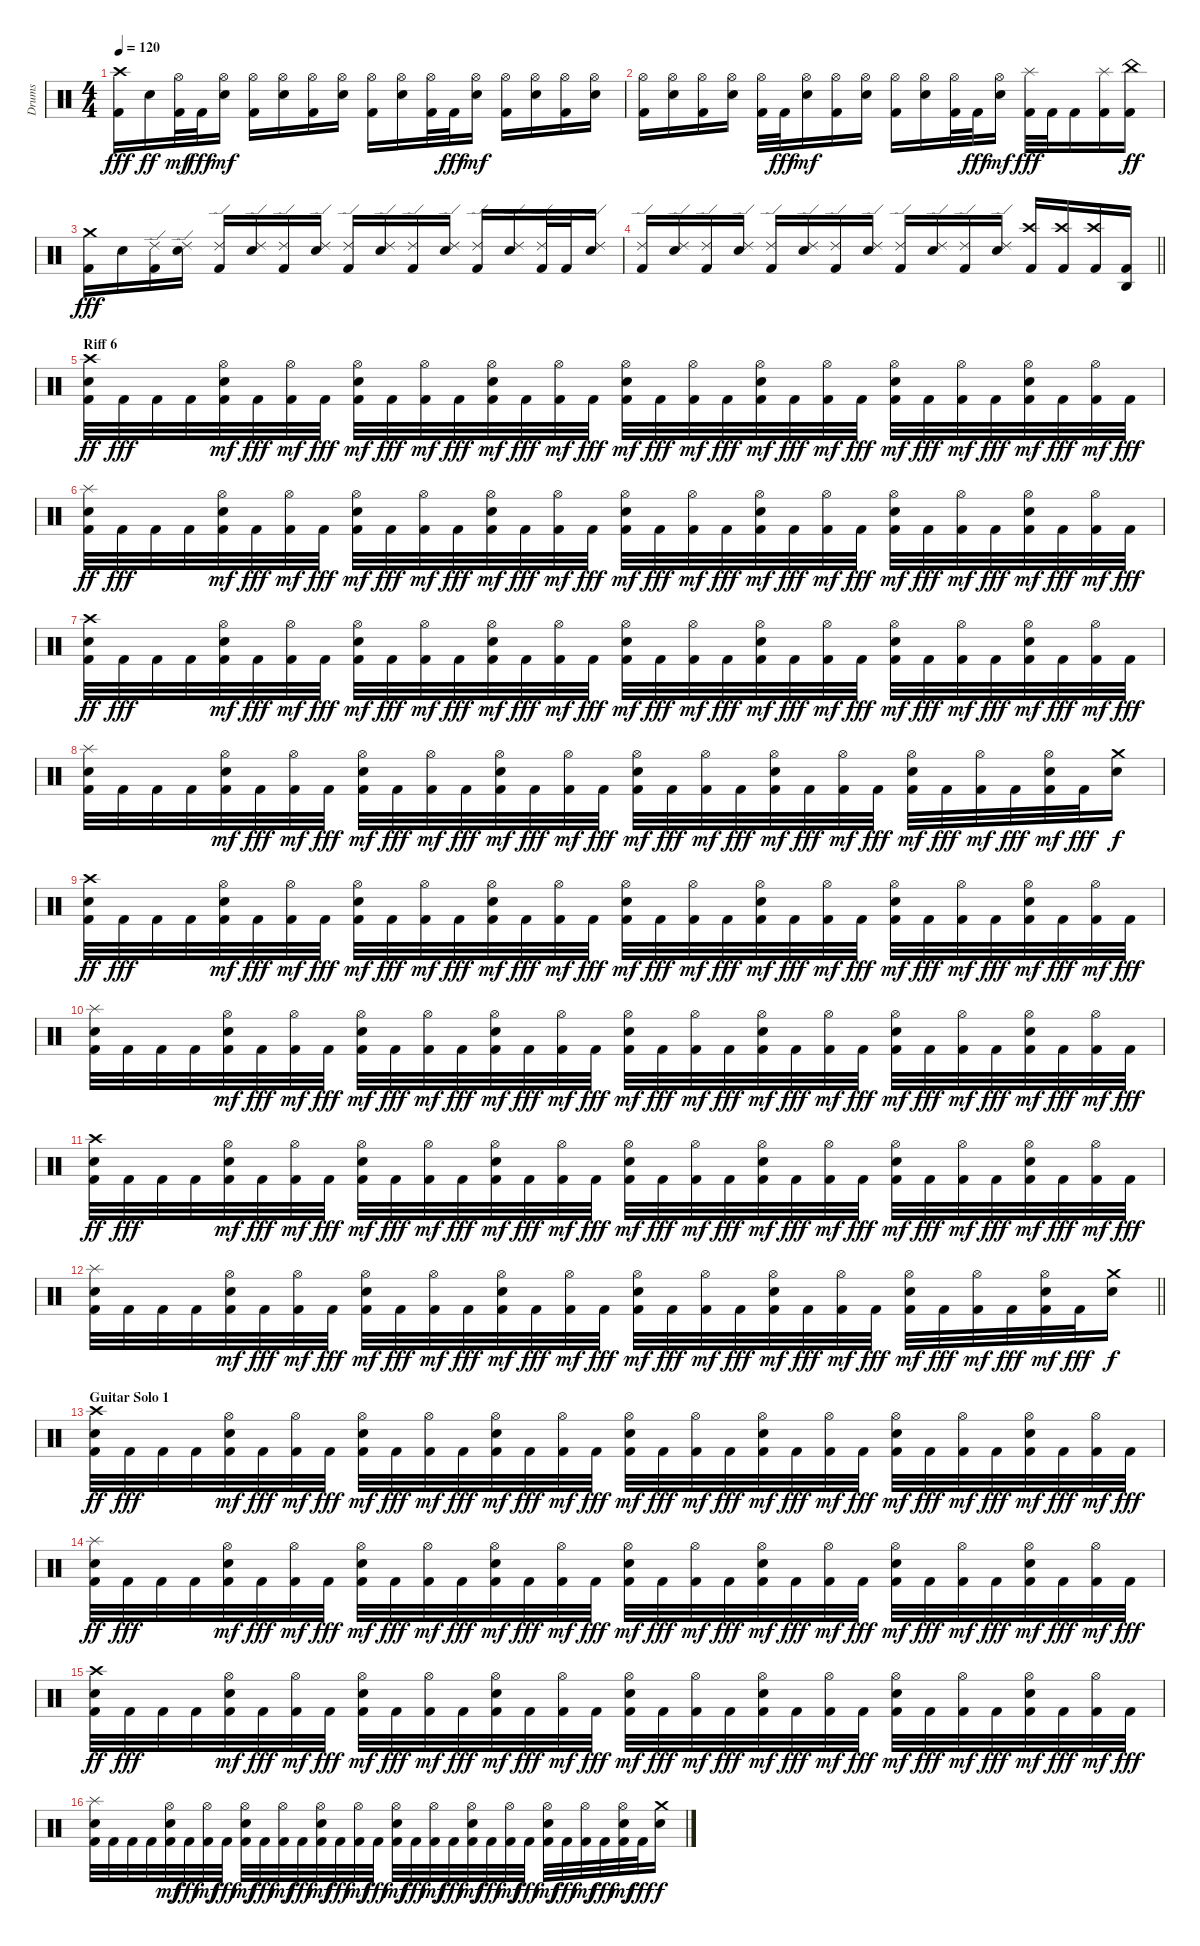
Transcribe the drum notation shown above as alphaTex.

\track ("Drums" "Drums") {instrument percussion}
\staff {score}
\articulation defaults
\ts (4 4)
\tempo 120
\clef neutral
\ks c
("Kick (hit) 2" "Crash high (hit)").16{dy fff} "Snare (hit) 2".16{dy ff} ("Kick (hit) 2" "Hi-Hat (open)").32{dy mf} "Kick (hit) 2".32{dy fff} ("Snare (hit) 2" "Hi-Hat (open)").16{dy mf} ("Kick (hit) 2" "Hi-Hat (open)").16 ("Snare (hit) 2" "Hi-Hat (open)").16 ("Kick (hit) 2" "Hi-Hat (open)").16 ("Snare (hit) 2" "Hi-Hat (open)").16 ("Kick (hit) 2" "Hi-Hat (open)").16 ("Snare (hit) 2" "Hi-Hat (open)").16 ("Kick (hit) 2" "Hi-Hat (open)").32 "Kick (hit) 2".32{dy fff} ("Snare (hit) 2" "Hi-Hat (open)").16{dy mf} ("Kick (hit) 2" "Hi-Hat (open)").16 ("Snare (hit) 2" "Hi-Hat (open)").16 ("Kick (hit) 2" "Hi-Hat (open)").16 ("Snare (hit) 2" "Hi-Hat (open)").16 |
("Kick (hit) 2" "Hi-Hat (open)").16 ("Snare (hit) 2" "Hi-Hat (open)").16 ("Kick (hit) 2" "Hi-Hat (open)").16 ("Snare (hit) 2" "Hi-Hat (open)").16 ("Kick (hit) 2" "Hi-Hat (open)").32 "Kick (hit) 2".32{dy fff} ("Snare (hit) 2" "Hi-Hat (open)").16{dy mf} ("Kick (hit) 2" "Hi-Hat (open)").16 ("Snare (hit) 2" "Hi-Hat (open)").16 ("Kick (hit) 2" "Hi-Hat (open)").16 ("Snare (hit) 2" "Hi-Hat (open)").16 ("Kick (hit) 2" "Hi-Hat (open)").32 "Kick (hit) 2".32{dy fff} ("Snare (hit) 2" "Hi-Hat (open)").16{dy mf} ("Kick (hit) 2" "Splash (hit)").32{dy fff} "Kick (hit) 2".32 "Kick (hit) 2".16 ("Kick (hit) 2" "Splash (hit)").16 ("Kick (hit) 2" "China (hit)").16{dy ff} |
("Kick (hit) 2" "Crash medium (hit)").16{dy fff} "Snare (hit) 2".16 ("Kick (hit) 2" "Ride (edge) 2").16 ("Snare (hit) 2" "Ride (edge) 2").16 ("Kick (hit) 2" "Ride (edge) 2").16 ("Snare (hit) 2" "Ride (edge) 2").16 ("Kick (hit) 2" "Ride (edge) 2").16 ("Snare (hit) 2" "Ride (edge) 2").16 ("Kick (hit) 2" "Ride (edge) 2").16 ("Snare (hit) 2" "Ride (edge) 2").16 ("Kick (hit) 2" "Ride (edge) 2").16 ("Snare (hit) 2" "Ride (edge) 2").16 ("Kick (hit) 2" "Ride (edge) 2").16 ("Snare (hit) 2" "Ride (edge) 2").16 ("Kick (hit) 2" "Ride (edge) 2").32 "Kick (hit) 2".32 ("Snare (hit) 2" "Ride (edge) 2").16 |
\barLineRight lightlight
("Kick (hit) 2" "Ride (edge) 2").16 ("Snare (hit) 2" "Ride (edge) 2").16 ("Kick (hit) 2" "Ride (edge) 2").16 ("Snare (hit) 2" "Ride (edge) 2").16 ("Kick (hit) 2" "Ride (edge) 2").16 ("Snare (hit) 2" "Ride (edge) 2").16 ("Kick (hit) 2" "Ride (edge) 2").16 ("Snare (hit) 2" "Ride (edge) 2").16 ("Kick (hit) 2" "Ride (edge) 2").16 ("Snare (hit) 2" "Ride (edge) 2").16 ("Kick (hit) 2" "Ride (edge) 2").16 ("Snare (hit) 2" "Ride (edge) 2").16 ("Kick (hit) 2" "Crash high (hit)").16 ("Kick (hit) 2" "Crash high (hit)").16 ("Kick (hit) 2" "Crash high (hit)").16 ("Kick (hit) 2" "Agogo high (hit)").16 |
\section ("" "Riff 6")
("Kick (hit) 2" "Snare (hit) 2" "Crash high (hit)").32{dy ff} "Kick (hit) 2".32{dy fff} "Kick (hit) 2".32 "Kick (hit) 2".32 ("Kick (hit) 2" "Snare (hit) 2" "Hi-Hat (open)").32{dy mf} "Kick (hit) 2".32{dy fff} ("Kick (hit) 2" "Hi-Hat (open)").32{dy mf} "Kick (hit) 2".32{dy fff} ("Kick (hit) 2" "Snare (hit) 2" "Hi-Hat (open)").32{dy mf} "Kick (hit) 2".32{dy fff} ("Kick (hit) 2" "Hi-Hat (open)").32{dy mf} "Kick (hit) 2".32{dy fff} ("Kick (hit) 2" "Snare (hit) 2" "Hi-Hat (open)").32{dy mf} "Kick (hit) 2".32{dy fff} ("Kick (hit) 2" "Hi-Hat (open)").32{dy mf} "Kick (hit) 2".32{dy fff} ("Kick (hit) 2" "Snare (hit) 2" "Hi-Hat (open)").32{dy mf} "Kick (hit) 2".32{dy fff} ("Kick (hit) 2" "Hi-Hat (open)").32{dy mf} "Kick (hit) 2".32{dy fff} ("Kick (hit) 2" "Snare (hit) 2" "Hi-Hat (open)").32{dy mf} "Kick (hit) 2".32{dy fff} ("Kick (hit) 2" "Hi-Hat (open)").32{dy mf} "Kick (hit) 2".32{dy fff} ("Kick (hit) 2" "Snare (hit) 2" "Hi-Hat (open)").32{dy mf} "Kick (hit) 2".32{dy fff} ("Kick (hit) 2" "Hi-Hat (open)").32{dy mf} "Kick (hit) 2".32{dy fff} ("Kick (hit) 2" "Snare (hit) 2" "Hi-Hat (open)").32{dy mf} "Kick (hit) 2".32{dy fff} ("Kick (hit) 2" "Hi-Hat (open)").32{dy mf} "Kick (hit) 2".32{dy fff} |
("Kick (hit) 2" "Snare (hit) 2" "Splash (hit)").32{dy ff} "Kick (hit) 2".32{dy fff} "Kick (hit) 2".32 "Kick (hit) 2".32 ("Kick (hit) 2" "Snare (hit) 2" "Hi-Hat (open)").32{dy mf} "Kick (hit) 2".32{dy fff} ("Kick (hit) 2" "Hi-Hat (open)").32{dy mf} "Kick (hit) 2".32{dy fff} ("Kick (hit) 2" "Snare (hit) 2" "Hi-Hat (open)").32{dy mf} "Kick (hit) 2".32{dy fff} ("Kick (hit) 2" "Hi-Hat (open)").32{dy mf} "Kick (hit) 2".32{dy fff} ("Kick (hit) 2" "Snare (hit) 2" "Hi-Hat (open)").32{dy mf} "Kick (hit) 2".32{dy fff} ("Kick (hit) 2" "Hi-Hat (open)").32{dy mf} "Kick (hit) 2".32{dy fff} ("Kick (hit) 2" "Snare (hit) 2" "Hi-Hat (open)").32{dy mf} "Kick (hit) 2".32{dy fff} ("Kick (hit) 2" "Hi-Hat (open)").32{dy mf} "Kick (hit) 2".32{dy fff} ("Kick (hit) 2" "Snare (hit) 2" "Hi-Hat (open)").32{dy mf} "Kick (hit) 2".32{dy fff} ("Kick (hit) 2" "Hi-Hat (open)").32{dy mf} "Kick (hit) 2".32{dy fff} ("Kick (hit) 2" "Snare (hit) 2" "Hi-Hat (open)").32{dy mf} "Kick (hit) 2".32{dy fff} ("Kick (hit) 2" "Hi-Hat (open)").32{dy mf} "Kick (hit) 2".32{dy fff} ("Kick (hit) 2" "Snare (hit) 2" "Hi-Hat (open)").32{dy mf} "Kick (hit) 2".32{dy fff} ("Kick (hit) 2" "Hi-Hat (open)").32{dy mf} "Kick (hit) 2".32{dy fff} |
("Kick (hit) 2" "Snare (hit) 2" "Crash high (hit)").32{dy ff} "Kick (hit) 2".32{dy fff} "Kick (hit) 2".32 "Kick (hit) 2".32 ("Kick (hit) 2" "Snare (hit) 2" "Hi-Hat (open)").32{dy mf} "Kick (hit) 2".32{dy fff} ("Kick (hit) 2" "Hi-Hat (open)").32{dy mf} "Kick (hit) 2".32{dy fff} ("Kick (hit) 2" "Snare (hit) 2" "Hi-Hat (open)").32{dy mf} "Kick (hit) 2".32{dy fff} ("Kick (hit) 2" "Hi-Hat (open)").32{dy mf} "Kick (hit) 2".32{dy fff} ("Kick (hit) 2" "Snare (hit) 2" "Hi-Hat (open)").32{dy mf} "Kick (hit) 2".32{dy fff} ("Kick (hit) 2" "Hi-Hat (open)").32{dy mf} "Kick (hit) 2".32{dy fff} ("Kick (hit) 2" "Snare (hit) 2" "Hi-Hat (open)").32{dy mf} "Kick (hit) 2".32{dy fff} ("Kick (hit) 2" "Hi-Hat (open)").32{dy mf} "Kick (hit) 2".32{dy fff} ("Kick (hit) 2" "Snare (hit) 2" "Hi-Hat (open)").32{dy mf} "Kick (hit) 2".32{dy fff} ("Kick (hit) 2" "Hi-Hat (open)").32{dy mf} "Kick (hit) 2".32{dy fff} ("Kick (hit) 2" "Snare (hit) 2" "Hi-Hat (open)").32{dy mf} "Kick (hit) 2".32{dy fff} ("Kick (hit) 2" "Hi-Hat (open)").32{dy mf} "Kick (hit) 2".32{dy fff} ("Kick (hit) 2" "Snare (hit) 2" "Hi-Hat (open)").32{dy mf} "Kick (hit) 2".32{dy fff} ("Kick (hit) 2" "Hi-Hat (open)").32{dy mf} "Kick (hit) 2".32{dy fff} |
("Kick (hit) 2" "Snare (hit) 2" "Splash (hit)").32 "Kick (hit) 2".32 "Kick (hit) 2".32 "Kick (hit) 2".32 ("Kick (hit) 2" "Snare (hit) 2" "Hi-Hat (open)").32{dy mf} "Kick (hit) 2".32{dy fff} ("Kick (hit) 2" "Hi-Hat (open)").32{dy mf} "Kick (hit) 2".32{dy fff} ("Kick (hit) 2" "Snare (hit) 2" "Hi-Hat (open)").32{dy mf} "Kick (hit) 2".32{dy fff} ("Kick (hit) 2" "Hi-Hat (open)").32{dy mf} "Kick (hit) 2".32{dy fff} ("Kick (hit) 2" "Snare (hit) 2" "Hi-Hat (open)").32{dy mf} "Kick (hit) 2".32{dy fff} ("Kick (hit) 2" "Hi-Hat (open)").32{dy mf} "Kick (hit) 2".32{dy fff} ("Kick (hit) 2" "Snare (hit) 2" "Hi-Hat (open)").32{dy mf} "Kick (hit) 2".32{dy fff} ("Kick (hit) 2" "Hi-Hat (open)").32{dy mf} "Kick (hit) 2".32{dy fff} ("Kick (hit) 2" "Snare (hit) 2" "Hi-Hat (open)").32{dy mf} "Kick (hit) 2".32{dy fff} ("Kick (hit) 2" "Hi-Hat (open)").32{dy mf} "Kick (hit) 2".32{dy fff} ("Kick (hit) 2" "Snare (hit) 2" "Hi-Hat (open)").32{dy mf} "Kick (hit) 2".32{dy fff} ("Kick (hit) 2" "Hi-Hat (open)").32{dy mf} "Kick (hit) 2".32{dy fff} ("Kick (hit) 2" "Snare (hit) 2" "Hi-Hat (open)").32{dy mf} "Kick (hit) 2".32{dy fff} ("Snare (hit) 2" "Crash medium (hit)").16{dy f} |
("Kick (hit) 2" "Snare (hit) 2" "Crash high (hit)").32{dy ff} "Kick (hit) 2".32{dy fff} "Kick (hit) 2".32 "Kick (hit) 2".32 ("Kick (hit) 2" "Snare (hit) 2" "Hi-Hat (open)").32{dy mf} "Kick (hit) 2".32{dy fff} ("Kick (hit) 2" "Hi-Hat (open)").32{dy mf} "Kick (hit) 2".32{dy fff} ("Kick (hit) 2" "Snare (hit) 2" "Hi-Hat (open)").32{dy mf} "Kick (hit) 2".32{dy fff} ("Kick (hit) 2" "Hi-Hat (open)").32{dy mf} "Kick (hit) 2".32{dy fff} ("Kick (hit) 2" "Snare (hit) 2" "Hi-Hat (open)").32{dy mf} "Kick (hit) 2".32{dy fff} ("Kick (hit) 2" "Hi-Hat (open)").32{dy mf} "Kick (hit) 2".32{dy fff} ("Kick (hit) 2" "Snare (hit) 2" "Hi-Hat (open)").32{dy mf} "Kick (hit) 2".32{dy fff} ("Kick (hit) 2" "Hi-Hat (open)").32{dy mf} "Kick (hit) 2".32{dy fff} ("Kick (hit) 2" "Snare (hit) 2" "Hi-Hat (open)").32{dy mf} "Kick (hit) 2".32{dy fff} ("Kick (hit) 2" "Hi-Hat (open)").32{dy mf} "Kick (hit) 2".32{dy fff} ("Kick (hit) 2" "Snare (hit) 2" "Hi-Hat (open)").32{dy mf} "Kick (hit) 2".32{dy fff} ("Kick (hit) 2" "Hi-Hat (open)").32{dy mf} "Kick (hit) 2".32{dy fff} ("Kick (hit) 2" "Snare (hit) 2" "Hi-Hat (open)").32{dy mf} "Kick (hit) 2".32{dy fff} ("Kick (hit) 2" "Hi-Hat (open)").32{dy mf} "Kick (hit) 2".32{dy fff} |
("Kick (hit) 2" "Snare (hit) 2" "Splash (hit)").32 "Kick (hit) 2".32 "Kick (hit) 2".32 "Kick (hit) 2".32 ("Kick (hit) 2" "Snare (hit) 2" "Hi-Hat (open)").32{dy mf} "Kick (hit) 2".32{dy fff} ("Kick (hit) 2" "Hi-Hat (open)").32{dy mf} "Kick (hit) 2".32{dy fff} ("Kick (hit) 2" "Snare (hit) 2" "Hi-Hat (open)").32{dy mf} "Kick (hit) 2".32{dy fff} ("Kick (hit) 2" "Hi-Hat (open)").32{dy mf} "Kick (hit) 2".32{dy fff} ("Kick (hit) 2" "Snare (hit) 2" "Hi-Hat (open)").32{dy mf} "Kick (hit) 2".32{dy fff} ("Kick (hit) 2" "Hi-Hat (open)").32{dy mf} "Kick (hit) 2".32{dy fff} ("Kick (hit) 2" "Snare (hit) 2" "Hi-Hat (open)").32{dy mf} "Kick (hit) 2".32{dy fff} ("Kick (hit) 2" "Hi-Hat (open)").32{dy mf} "Kick (hit) 2".32{dy fff} ("Kick (hit) 2" "Snare (hit) 2" "Hi-Hat (open)").32{dy mf} "Kick (hit) 2".32{dy fff} ("Kick (hit) 2" "Hi-Hat (open)").32{dy mf} "Kick (hit) 2".32{dy fff} ("Kick (hit) 2" "Snare (hit) 2" "Hi-Hat (open)").32{dy mf} "Kick (hit) 2".32{dy fff} ("Kick (hit) 2" "Hi-Hat (open)").32{dy mf} "Kick (hit) 2".32{dy fff} ("Kick (hit) 2" "Snare (hit) 2" "Hi-Hat (open)").32{dy mf} "Kick (hit) 2".32{dy fff} ("Kick (hit) 2" "Hi-Hat (open)").32{dy mf} "Kick (hit) 2".32{dy fff} |
("Kick (hit) 2" "Snare (hit) 2" "Crash high (hit)").32{dy ff} "Kick (hit) 2".32{dy fff} "Kick (hit) 2".32 "Kick (hit) 2".32 ("Kick (hit) 2" "Snare (hit) 2" "Hi-Hat (open)").32{dy mf} "Kick (hit) 2".32{dy fff} ("Kick (hit) 2" "Hi-Hat (open)").32{dy mf} "Kick (hit) 2".32{dy fff} ("Kick (hit) 2" "Snare (hit) 2" "Hi-Hat (open)").32{dy mf} "Kick (hit) 2".32{dy fff} ("Kick (hit) 2" "Hi-Hat (open)").32{dy mf} "Kick (hit) 2".32{dy fff} ("Kick (hit) 2" "Snare (hit) 2" "Hi-Hat (open)").32{dy mf} "Kick (hit) 2".32{dy fff} ("Kick (hit) 2" "Hi-Hat (open)").32{dy mf} "Kick (hit) 2".32{dy fff} ("Kick (hit) 2" "Snare (hit) 2" "Hi-Hat (open)").32{dy mf} "Kick (hit) 2".32{dy fff} ("Kick (hit) 2" "Hi-Hat (open)").32{dy mf} "Kick (hit) 2".32{dy fff} ("Kick (hit) 2" "Snare (hit) 2" "Hi-Hat (open)").32{dy mf} "Kick (hit) 2".32{dy fff} ("Kick (hit) 2" "Hi-Hat (open)").32{dy mf} "Kick (hit) 2".32{dy fff} ("Kick (hit) 2" "Snare (hit) 2" "Hi-Hat (open)").32{dy mf} "Kick (hit) 2".32{dy fff} ("Kick (hit) 2" "Hi-Hat (open)").32{dy mf} "Kick (hit) 2".32{dy fff} ("Kick (hit) 2" "Snare (hit) 2" "Hi-Hat (open)").32{dy mf} "Kick (hit) 2".32{dy fff} ("Kick (hit) 2" "Hi-Hat (open)").32{dy mf} "Kick (hit) 2".32{dy fff} |
\barLineRight lightlight
("Kick (hit) 2" "Snare (hit) 2" "Splash (hit)").32 "Kick (hit) 2".32 "Kick (hit) 2".32 "Kick (hit) 2".32 ("Kick (hit) 2" "Snare (hit) 2" "Hi-Hat (open)").32{dy mf} "Kick (hit) 2".32{dy fff} ("Kick (hit) 2" "Hi-Hat (open)").32{dy mf} "Kick (hit) 2".32{dy fff} ("Kick (hit) 2" "Snare (hit) 2" "Hi-Hat (open)").32{dy mf} "Kick (hit) 2".32{dy fff} ("Kick (hit) 2" "Hi-Hat (open)").32{dy mf} "Kick (hit) 2".32{dy fff} ("Kick (hit) 2" "Snare (hit) 2" "Hi-Hat (open)").32{dy mf} "Kick (hit) 2".32{dy fff} ("Kick (hit) 2" "Hi-Hat (open)").32{dy mf} "Kick (hit) 2".32{dy fff} ("Kick (hit) 2" "Snare (hit) 2" "Hi-Hat (open)").32{dy mf} "Kick (hit) 2".32{dy fff} ("Kick (hit) 2" "Hi-Hat (open)").32{dy mf} "Kick (hit) 2".32{dy fff} ("Kick (hit) 2" "Snare (hit) 2" "Hi-Hat (open)").32{dy mf} "Kick (hit) 2".32{dy fff} ("Kick (hit) 2" "Hi-Hat (open)").32{dy mf} "Kick (hit) 2".32{dy fff} ("Kick (hit) 2" "Snare (hit) 2" "Hi-Hat (open)").32{dy mf} "Kick (hit) 2".32{dy fff} ("Kick (hit) 2" "Hi-Hat (open)").32{dy mf} "Kick (hit) 2".32{dy fff} ("Kick (hit) 2" "Snare (hit) 2" "Hi-Hat (open)").32{dy mf} "Kick (hit) 2".32{dy fff} ("Snare (hit) 2" "Crash medium (hit)").16{dy f} |
\section ("" "Guitar Solo 1")
("Kick (hit) 2" "Snare (hit) 2" "Crash high (hit)").32{dy ff} "Kick (hit) 2".32{dy fff} "Kick (hit) 2".32 "Kick (hit) 2".32 ("Kick (hit) 2" "Snare (hit) 2" "Hi-Hat (open)").32{dy mf} "Kick (hit) 2".32{dy fff} ("Kick (hit) 2" "Hi-Hat (open)").32{dy mf} "Kick (hit) 2".32{dy fff} ("Kick (hit) 2" "Snare (hit) 2" "Hi-Hat (open)").32{dy mf} "Kick (hit) 2".32{dy fff} ("Kick (hit) 2" "Hi-Hat (open)").32{dy mf} "Kick (hit) 2".32{dy fff} ("Kick (hit) 2" "Snare (hit) 2" "Hi-Hat (open)").32{dy mf} "Kick (hit) 2".32{dy fff} ("Kick (hit) 2" "Hi-Hat (open)").32{dy mf} "Kick (hit) 2".32{dy fff} ("Kick (hit) 2" "Snare (hit) 2" "Hi-Hat (open)").32{dy mf} "Kick (hit) 2".32{dy fff} ("Kick (hit) 2" "Hi-Hat (open)").32{dy mf} "Kick (hit) 2".32{dy fff} ("Kick (hit) 2" "Snare (hit) 2" "Hi-Hat (open)").32{dy mf} "Kick (hit) 2".32{dy fff} ("Kick (hit) 2" "Hi-Hat (open)").32{dy mf} "Kick (hit) 2".32{dy fff} ("Kick (hit) 2" "Snare (hit) 2" "Hi-Hat (open)").32{dy mf} "Kick (hit) 2".32{dy fff} ("Kick (hit) 2" "Hi-Hat (open)").32{dy mf} "Kick (hit) 2".32{dy fff} ("Kick (hit) 2" "Snare (hit) 2" "Hi-Hat (open)").32{dy mf} "Kick (hit) 2".32{dy fff} ("Kick (hit) 2" "Hi-Hat (open)").32{dy mf} "Kick (hit) 2".32{dy fff} |
("Kick (hit) 2" "Snare (hit) 2" "Splash (hit)").32{dy ff} "Kick (hit) 2".32{dy fff} "Kick (hit) 2".32 "Kick (hit) 2".32 ("Kick (hit) 2" "Snare (hit) 2" "Hi-Hat (open)").32{dy mf} "Kick (hit) 2".32{dy fff} ("Kick (hit) 2" "Hi-Hat (open)").32{dy mf} "Kick (hit) 2".32{dy fff} ("Kick (hit) 2" "Snare (hit) 2" "Hi-Hat (open)").32{dy mf} "Kick (hit) 2".32{dy fff} ("Kick (hit) 2" "Hi-Hat (open)").32{dy mf} "Kick (hit) 2".32{dy fff} ("Kick (hit) 2" "Snare (hit) 2" "Hi-Hat (open)").32{dy mf} "Kick (hit) 2".32{dy fff} ("Kick (hit) 2" "Hi-Hat (open)").32{dy mf} "Kick (hit) 2".32{dy fff} ("Kick (hit) 2" "Snare (hit) 2" "Hi-Hat (open)").32{dy mf} "Kick (hit) 2".32{dy fff} ("Kick (hit) 2" "Hi-Hat (open)").32{dy mf} "Kick (hit) 2".32{dy fff} ("Kick (hit) 2" "Snare (hit) 2" "Hi-Hat (open)").32{dy mf} "Kick (hit) 2".32{dy fff} ("Kick (hit) 2" "Hi-Hat (open)").32{dy mf} "Kick (hit) 2".32{dy fff} ("Kick (hit) 2" "Snare (hit) 2" "Hi-Hat (open)").32{dy mf} "Kick (hit) 2".32{dy fff} ("Kick (hit) 2" "Hi-Hat (open)").32{dy mf} "Kick (hit) 2".32{dy fff} ("Kick (hit) 2" "Snare (hit) 2" "Hi-Hat (open)").32{dy mf} "Kick (hit) 2".32{dy fff} ("Kick (hit) 2" "Hi-Hat (open)").32{dy mf} "Kick (hit) 2".32{dy fff} |
("Kick (hit) 2" "Snare (hit) 2" "Crash high (hit)").32{dy ff} "Kick (hit) 2".32{dy fff} "Kick (hit) 2".32 "Kick (hit) 2".32 ("Kick (hit) 2" "Snare (hit) 2" "Hi-Hat (open)").32{dy mf} "Kick (hit) 2".32{dy fff} ("Kick (hit) 2" "Hi-Hat (open)").32{dy mf} "Kick (hit) 2".32{dy fff} ("Kick (hit) 2" "Snare (hit) 2" "Hi-Hat (open)").32{dy mf} "Kick (hit) 2".32{dy fff} ("Kick (hit) 2" "Hi-Hat (open)").32{dy mf} "Kick (hit) 2".32{dy fff} ("Kick (hit) 2" "Snare (hit) 2" "Hi-Hat (open)").32{dy mf} "Kick (hit) 2".32{dy fff} ("Kick (hit) 2" "Hi-Hat (open)").32{dy mf} "Kick (hit) 2".32{dy fff} ("Kick (hit) 2" "Snare (hit) 2" "Hi-Hat (open)").32{dy mf} "Kick (hit) 2".32{dy fff} ("Kick (hit) 2" "Hi-Hat (open)").32{dy mf} "Kick (hit) 2".32{dy fff} ("Kick (hit) 2" "Snare (hit) 2" "Hi-Hat (open)").32{dy mf} "Kick (hit) 2".32{dy fff} ("Kick (hit) 2" "Hi-Hat (open)").32{dy mf} "Kick (hit) 2".32{dy fff} ("Kick (hit) 2" "Snare (hit) 2" "Hi-Hat (open)").32{dy mf} "Kick (hit) 2".32{dy fff} ("Kick (hit) 2" "Hi-Hat (open)").32{dy mf} "Kick (hit) 2".32{dy fff} ("Kick (hit) 2" "Snare (hit) 2" "Hi-Hat (open)").32{dy mf} "Kick (hit) 2".32{dy fff} ("Kick (hit) 2" "Hi-Hat (open)").32{dy mf} "Kick (hit) 2".32{dy fff} |
("Kick (hit) 2" "Snare (hit) 2" "Splash (hit)").32 "Kick (hit) 2".32 "Kick (hit) 2".32 "Kick (hit) 2".32 ("Kick (hit) 2" "Snare (hit) 2" "Hi-Hat (open)").32{dy mf} "Kick (hit) 2".32{dy fff} ("Kick (hit) 2" "Hi-Hat (open)").32{dy mf} "Kick (hit) 2".32{dy fff} ("Kick (hit) 2" "Snare (hit) 2" "Hi-Hat (open)").32{dy mf} "Kick (hit) 2".32{dy fff} ("Kick (hit) 2" "Hi-Hat (open)").32{dy mf} "Kick (hit) 2".32{dy fff} ("Kick (hit) 2" "Snare (hit) 2" "Hi-Hat (open)").32{dy mf} "Kick (hit) 2".32{dy fff} ("Kick (hit) 2" "Hi-Hat (open)").32{dy mf} "Kick (hit) 2".32{dy fff} ("Kick (hit) 2" "Snare (hit) 2" "Hi-Hat (open)").32{dy mf} "Kick (hit) 2".32{dy fff} ("Kick (hit) 2" "Hi-Hat (open)").32{dy mf} "Kick (hit) 2".32{dy fff} ("Kick (hit) 2" "Snare (hit) 2" "Hi-Hat (open)").32{dy mf} "Kick (hit) 2".32{dy fff} ("Kick (hit) 2" "Hi-Hat (open)").32{dy mf} "Kick (hit) 2".32{dy fff} ("Kick (hit) 2" "Snare (hit) 2" "Hi-Hat (open)").32{dy mf} "Kick (hit) 2".32{dy fff} ("Kick (hit) 2" "Hi-Hat (open)").32{dy mf} "Kick (hit) 2".32{dy fff} ("Kick (hit) 2" "Snare (hit) 2" "Hi-Hat (open)").32{dy mf} "Kick (hit) 2".32{dy fff} ("Snare (hit) 2" "Crash medium (hit)").16{dy f}
